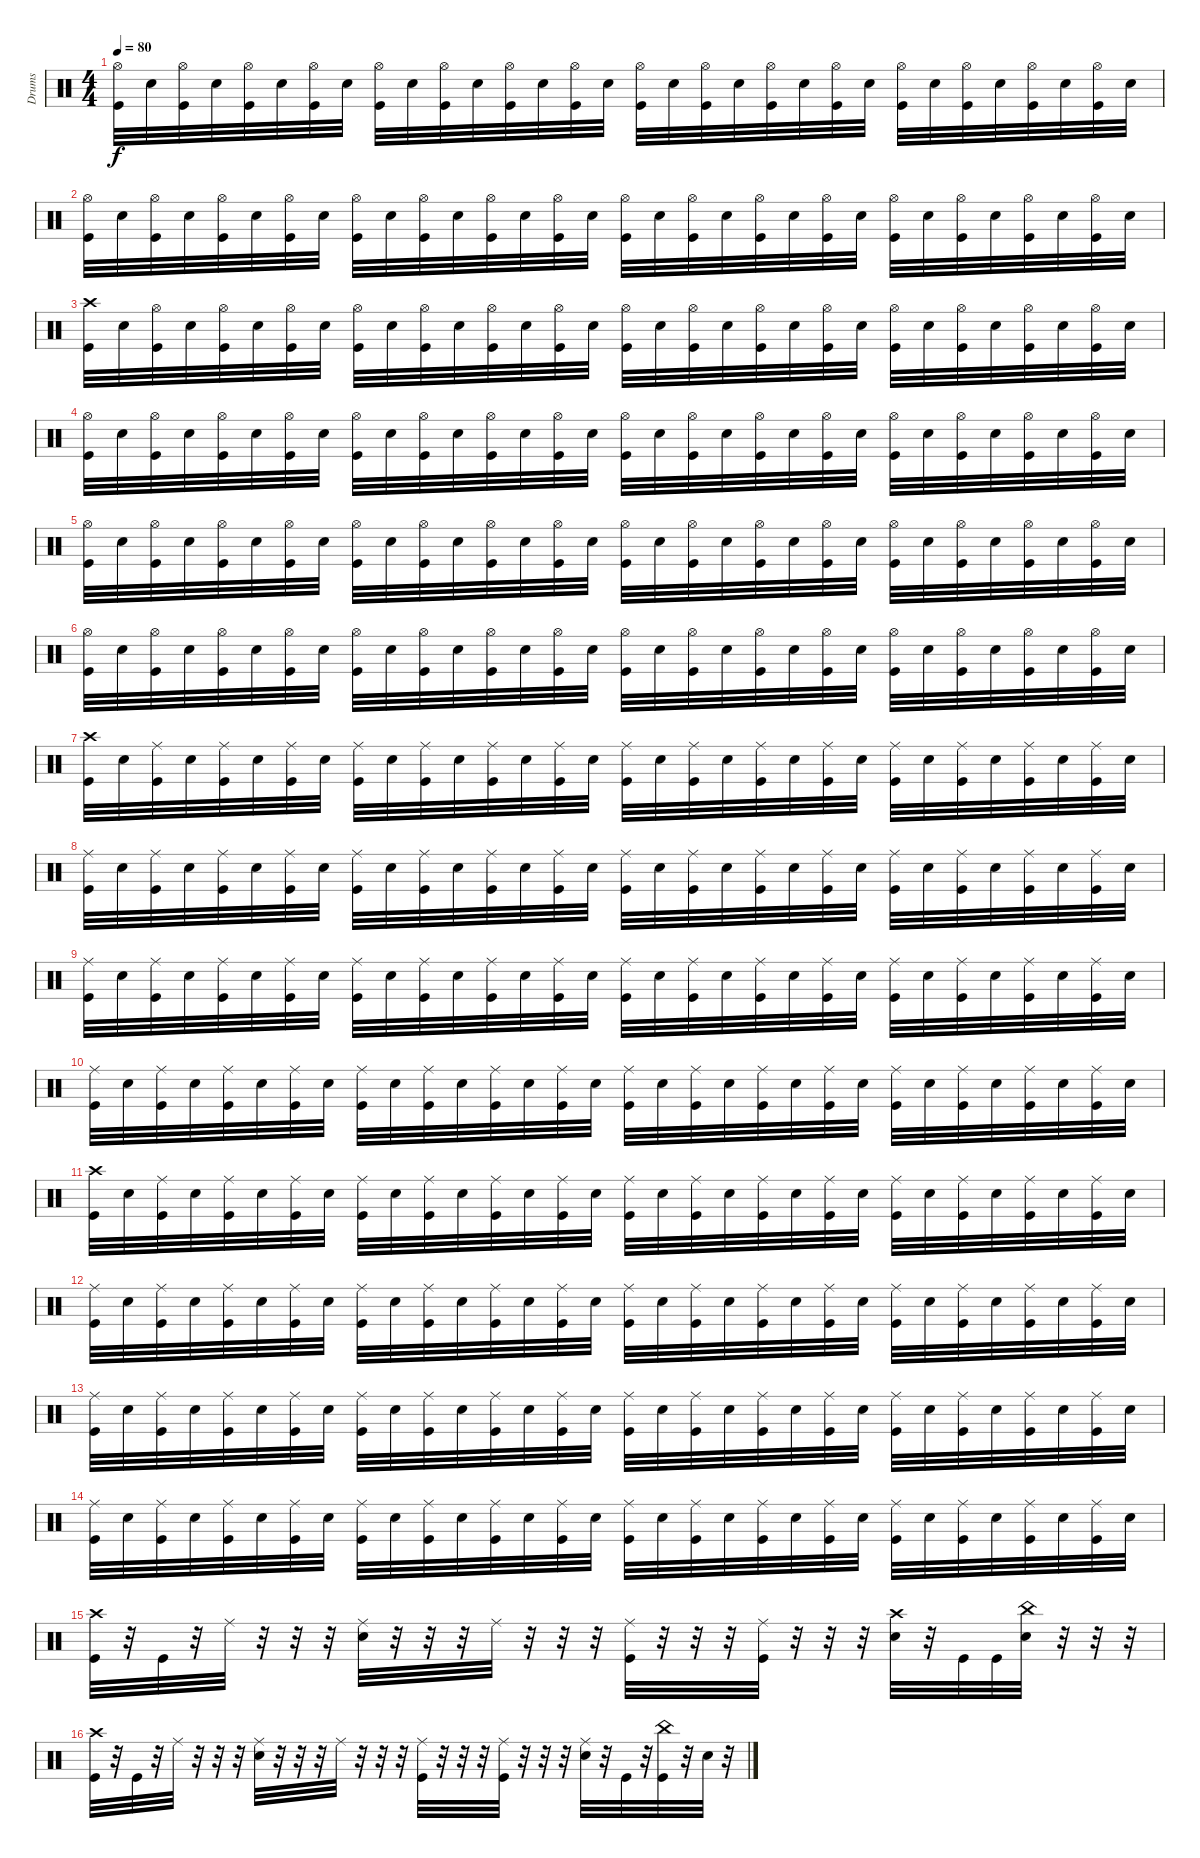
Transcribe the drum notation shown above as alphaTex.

\track ("Drums" "Drums") {instrument percussion}
\staff {score}
\articulation defaults
\ts (4 4)
\tempo 80
\clef neutral
\ks c
("Hi-Hat (open)" "Kick (hit)").32{dy f} "Snare (hit) 2".32 ("Hi-Hat (open)" "Kick (hit)").32 "Snare (hit) 2".32 ("Hi-Hat (open)" "Kick (hit)").32 "Snare (hit) 2".32 ("Hi-Hat (open)" "Kick (hit)").32 "Snare (hit) 2".32 ("Hi-Hat (open)" "Kick (hit)").32 "Snare (hit) 2".32 ("Hi-Hat (open)" "Kick (hit)").32 "Snare (hit) 2".32 ("Hi-Hat (open)" "Kick (hit)").32 "Snare (hit) 2".32 ("Hi-Hat (open)" "Kick (hit)").32 "Snare (hit) 2".32 ("Hi-Hat (open)" "Kick (hit)").32 "Snare (hit) 2".32 ("Hi-Hat (open)" "Kick (hit)").32 "Snare (hit) 2".32 ("Hi-Hat (open)" "Kick (hit)").32 "Snare (hit) 2".32 ("Hi-Hat (open)" "Kick (hit)").32 "Snare (hit) 2".32 ("Hi-Hat (open)" "Kick (hit)").32 "Snare (hit) 2".32 ("Hi-Hat (open)" "Kick (hit)").32 "Snare (hit) 2".32 ("Hi-Hat (open)" "Kick (hit)").32 "Snare (hit) 2".32 ("Hi-Hat (open)" "Kick (hit)").32 "Snare (hit) 2".32 |
("Hi-Hat (open)" "Kick (hit)").32 "Snare (hit) 2".32 ("Hi-Hat (open)" "Kick (hit)").32 "Snare (hit) 2".32 ("Hi-Hat (open)" "Kick (hit)").32 "Snare (hit) 2".32 ("Hi-Hat (open)" "Kick (hit)").32 "Snare (hit) 2".32 ("Hi-Hat (open)" "Kick (hit)").32 "Snare (hit) 2".32 ("Hi-Hat (open)" "Kick (hit)").32 "Snare (hit) 2".32 ("Hi-Hat (open)" "Kick (hit)").32 "Snare (hit) 2".32 ("Hi-Hat (open)" "Kick (hit)").32 "Snare (hit) 2".32 ("Hi-Hat (open)" "Kick (hit)").32 "Snare (hit) 2".32 ("Hi-Hat (open)" "Kick (hit)").32 "Snare (hit) 2".32 ("Hi-Hat (open)" "Kick (hit)").32 "Snare (hit) 2".32 ("Hi-Hat (open)" "Kick (hit)").32 "Snare (hit) 2".32 ("Hi-Hat (open)" "Kick (hit)").32 "Snare (hit) 2".32 ("Hi-Hat (open)" "Kick (hit)").32 "Snare (hit) 2".32 ("Hi-Hat (open)" "Kick (hit)").32 "Snare (hit) 2".32 ("Hi-Hat (open)" "Kick (hit)").32 "Snare (hit) 2".32 |
("Crash high (hit)" "Kick (hit)").32 "Snare (hit) 2".32 ("Hi-Hat (open)" "Kick (hit)").32 "Snare (hit) 2".32 ("Hi-Hat (open)" "Kick (hit)").32 "Snare (hit) 2".32 ("Hi-Hat (open)" "Kick (hit)").32 "Snare (hit) 2".32 ("Hi-Hat (open)" "Kick (hit)").32 "Snare (hit) 2".32 ("Hi-Hat (open)" "Kick (hit)").32 "Snare (hit) 2".32 ("Hi-Hat (open)" "Kick (hit)").32 "Snare (hit) 2".32 ("Hi-Hat (open)" "Kick (hit)").32 "Snare (hit) 2".32 ("Hi-Hat (open)" "Kick (hit)").32 "Snare (hit) 2".32 ("Hi-Hat (open)" "Kick (hit)").32 "Snare (hit) 2".32 ("Hi-Hat (open)" "Kick (hit)").32 "Snare (hit) 2".32 ("Hi-Hat (open)" "Kick (hit)").32 "Snare (hit) 2".32 ("Hi-Hat (open)" "Kick (hit)").32 "Snare (hit) 2".32 ("Hi-Hat (open)" "Kick (hit)").32 "Snare (hit) 2".32 ("Hi-Hat (open)" "Kick (hit)").32 "Snare (hit) 2".32 ("Hi-Hat (open)" "Kick (hit)").32 "Snare (hit) 2".32 |
("Hi-Hat (open)" "Kick (hit)").32 "Snare (hit) 2".32 ("Hi-Hat (open)" "Kick (hit)").32 "Snare (hit) 2".32 ("Hi-Hat (open)" "Kick (hit)").32 "Snare (hit) 2".32 ("Hi-Hat (open)" "Kick (hit)").32 "Snare (hit) 2".32 ("Hi-Hat (open)" "Kick (hit)").32 "Snare (hit) 2".32 ("Hi-Hat (open)" "Kick (hit)").32 "Snare (hit) 2".32 ("Hi-Hat (open)" "Kick (hit)").32 "Snare (hit) 2".32 ("Hi-Hat (open)" "Kick (hit)").32 "Snare (hit) 2".32 ("Hi-Hat (open)" "Kick (hit)").32 "Snare (hit) 2".32 ("Hi-Hat (open)" "Kick (hit)").32 "Snare (hit) 2".32 ("Hi-Hat (open)" "Kick (hit)").32 "Snare (hit) 2".32 ("Hi-Hat (open)" "Kick (hit)").32 "Snare (hit) 2".32 ("Hi-Hat (open)" "Kick (hit)").32 "Snare (hit) 2".32 ("Hi-Hat (open)" "Kick (hit)").32 "Snare (hit) 2".32 ("Hi-Hat (open)" "Kick (hit)").32 "Snare (hit) 2".32 ("Hi-Hat (open)" "Kick (hit)").32 "Snare (hit) 2".32 |
("Hi-Hat (open)" "Kick (hit)").32 "Snare (hit) 2".32 ("Hi-Hat (open)" "Kick (hit)").32 "Snare (hit) 2".32 ("Hi-Hat (open)" "Kick (hit)").32 "Snare (hit) 2".32 ("Hi-Hat (open)" "Kick (hit)").32 "Snare (hit) 2".32 ("Hi-Hat (open)" "Kick (hit)").32 "Snare (hit) 2".32 ("Hi-Hat (open)" "Kick (hit)").32 "Snare (hit) 2".32 ("Hi-Hat (open)" "Kick (hit)").32 "Snare (hit) 2".32 ("Hi-Hat (open)" "Kick (hit)").32 "Snare (hit) 2".32 ("Hi-Hat (open)" "Kick (hit)").32 "Snare (hit) 2".32 ("Hi-Hat (open)" "Kick (hit)").32 "Snare (hit) 2".32 ("Hi-Hat (open)" "Kick (hit)").32 "Snare (hit) 2".32 ("Hi-Hat (open)" "Kick (hit)").32 "Snare (hit) 2".32 ("Hi-Hat (open)" "Kick (hit)").32 "Snare (hit) 2".32 ("Hi-Hat (open)" "Kick (hit)").32 "Snare (hit) 2".32 ("Hi-Hat (open)" "Kick (hit)").32 "Snare (hit) 2".32 ("Hi-Hat (open)" "Kick (hit)").32 "Snare (hit) 2".32 |
("Hi-Hat (open)" "Kick (hit)").32 "Snare (hit) 2".32 ("Hi-Hat (open)" "Kick (hit)").32 "Snare (hit) 2".32 ("Hi-Hat (open)" "Kick (hit)").32 "Snare (hit) 2".32 ("Hi-Hat (open)" "Kick (hit)").32 "Snare (hit) 2".32 ("Hi-Hat (open)" "Kick (hit)").32 "Snare (hit) 2".32 ("Hi-Hat (open)" "Kick (hit)").32 "Snare (hit) 2".32 ("Hi-Hat (open)" "Kick (hit)").32 "Snare (hit) 2".32 ("Hi-Hat (open)" "Kick (hit)").32 "Snare (hit) 2".32 ("Hi-Hat (open)" "Kick (hit)").32 "Snare (hit) 2".32 ("Hi-Hat (open)" "Kick (hit)").32 "Snare (hit) 2".32 ("Hi-Hat (open)" "Kick (hit)").32 "Snare (hit) 2".32 ("Hi-Hat (open)" "Kick (hit)").32 "Snare (hit) 2".32 ("Hi-Hat (open)" "Kick (hit)").32 "Snare (hit) 2".32 ("Hi-Hat (open)" "Kick (hit)").32 "Snare (hit) 2".32 ("Hi-Hat (open)" "Kick (hit)").32 "Snare (hit) 2".32 ("Hi-Hat (open)" "Kick (hit)").32 "Snare (hit) 2".32 |
("Crash high (hit)" "Kick (hit)").32 "Snare (hit) 2".32 ("Ride (middle)" "Kick (hit)").32 "Snare (hit) 2".32 ("Ride (middle)" "Kick (hit)").32 "Snare (hit) 2".32 ("Ride (middle)" "Kick (hit)").32 "Snare (hit) 2".32 ("Ride (middle)" "Kick (hit)").32 "Snare (hit) 2".32 ("Ride (middle)" "Kick (hit)").32 "Snare (hit) 2".32 ("Ride (middle)" "Kick (hit)").32 "Snare (hit) 2".32 ("Ride (middle)" "Kick (hit)").32 "Snare (hit) 2".32 ("Ride (middle)" "Kick (hit)").32 "Snare (hit) 2".32 ("Ride (middle)" "Kick (hit)").32 "Snare (hit) 2".32 ("Ride (middle)" "Kick (hit)").32 "Snare (hit) 2".32 ("Ride (middle)" "Kick (hit)").32 "Snare (hit) 2".32 ("Ride (middle)" "Kick (hit)").32 "Snare (hit) 2".32 ("Ride (middle)" "Kick (hit)").32 "Snare (hit) 2".32 ("Ride (middle)" "Kick (hit)").32 "Snare (hit) 2".32 ("Ride (middle)" "Kick (hit)").32 "Snare (hit) 2".32 |
("Ride (middle)" "Kick (hit)").32 "Snare (hit) 2".32 ("Ride (middle)" "Kick (hit)").32 "Snare (hit) 2".32 ("Ride (middle)" "Kick (hit)").32 "Snare (hit) 2".32 ("Ride (middle)" "Kick (hit)").32 "Snare (hit) 2".32 ("Ride (middle)" "Kick (hit)").32 "Snare (hit) 2".32 ("Ride (middle)" "Kick (hit)").32 "Snare (hit) 2".32 ("Ride (middle)" "Kick (hit)").32 "Snare (hit) 2".32 ("Ride (middle)" "Kick (hit)").32 "Snare (hit) 2".32 ("Ride (middle)" "Kick (hit)").32 "Snare (hit) 2".32 ("Ride (middle)" "Kick (hit)").32 "Snare (hit) 2".32 ("Ride (middle)" "Kick (hit)").32 "Snare (hit) 2".32 ("Ride (middle)" "Kick (hit)").32 "Snare (hit) 2".32 ("Ride (middle)" "Kick (hit)").32 "Snare (hit) 2".32 ("Ride (middle)" "Kick (hit)").32 "Snare (hit) 2".32 ("Ride (middle)" "Kick (hit)").32 "Snare (hit) 2".32 ("Ride (middle)" "Kick (hit)").32 "Snare (hit) 2".32 |
("Ride (middle)" "Kick (hit)").32 "Snare (hit) 2".32 ("Ride (middle)" "Kick (hit)").32 "Snare (hit) 2".32 ("Ride (middle)" "Kick (hit)").32 "Snare (hit) 2".32 ("Ride (middle)" "Kick (hit)").32 "Snare (hit) 2".32 ("Ride (middle)" "Kick (hit)").32 "Snare (hit) 2".32 ("Ride (middle)" "Kick (hit)").32 "Snare (hit) 2".32 ("Ride (middle)" "Kick (hit)").32 "Snare (hit) 2".32 ("Ride (middle)" "Kick (hit)").32 "Snare (hit) 2".32 ("Ride (middle)" "Kick (hit)").32 "Snare (hit) 2".32 ("Ride (middle)" "Kick (hit)").32 "Snare (hit) 2".32 ("Ride (middle)" "Kick (hit)").32 "Snare (hit) 2".32 ("Ride (middle)" "Kick (hit)").32 "Snare (hit) 2".32 ("Ride (middle)" "Kick (hit)").32 "Snare (hit) 2".32 ("Ride (middle)" "Kick (hit)").32 "Snare (hit) 2".32 ("Ride (middle)" "Kick (hit)").32 "Snare (hit) 2".32 ("Ride (middle)" "Kick (hit)").32 "Snare (hit) 2".32 |
("Ride (middle)" "Kick (hit)").32 "Snare (hit) 2".32 ("Ride (middle)" "Kick (hit)").32 "Snare (hit) 2".32 ("Ride (middle)" "Kick (hit)").32 "Snare (hit) 2".32 ("Ride (middle)" "Kick (hit)").32 "Snare (hit) 2".32 ("Ride (middle)" "Kick (hit)").32 "Snare (hit) 2".32 ("Ride (middle)" "Kick (hit)").32 "Snare (hit) 2".32 ("Ride (middle)" "Kick (hit)").32 "Snare (hit) 2".32 ("Ride (middle)" "Kick (hit)").32 "Snare (hit) 2".32 ("Ride (middle)" "Kick (hit)").32 "Snare (hit) 2".32 ("Ride (middle)" "Kick (hit)").32 "Snare (hit) 2".32 ("Ride (middle)" "Kick (hit)").32 "Snare (hit) 2".32 ("Ride (middle)" "Kick (hit)").32 "Snare (hit) 2".32 ("Ride (middle)" "Kick (hit)").32 "Snare (hit) 2".32 ("Ride (middle)" "Kick (hit)").32 "Snare (hit) 2".32 ("Ride (middle)" "Kick (hit)").32 "Snare (hit) 2".32 ("Ride (middle)" "Kick (hit)").32 "Snare (hit) 2".32 |
("Crash high (hit)" "Kick (hit)").32 "Snare (hit) 2".32 ("Ride (middle)" "Kick (hit)").32 "Snare (hit) 2".32 ("Ride (middle)" "Kick (hit)").32 "Snare (hit) 2".32 ("Ride (middle)" "Kick (hit)").32 "Snare (hit) 2".32 ("Ride (middle)" "Kick (hit)").32 "Snare (hit) 2".32 ("Ride (middle)" "Kick (hit)").32 "Snare (hit) 2".32 ("Ride (middle)" "Kick (hit)").32 "Snare (hit) 2".32 ("Ride (middle)" "Kick (hit)").32 "Snare (hit) 2".32 ("Ride (middle)" "Kick (hit)").32 "Snare (hit) 2".32 ("Ride (middle)" "Kick (hit)").32 "Snare (hit) 2".32 ("Ride (middle)" "Kick (hit)").32 "Snare (hit) 2".32 ("Ride (middle)" "Kick (hit)").32 "Snare (hit) 2".32 ("Ride (middle)" "Kick (hit)").32 "Snare (hit) 2".32 ("Ride (middle)" "Kick (hit)").32 "Snare (hit) 2".32 ("Ride (middle)" "Kick (hit)").32 "Snare (hit) 2".32 ("Ride (middle)" "Kick (hit)").32 "Snare (hit) 2".32 |
("Ride (middle)" "Kick (hit)").32 "Snare (hit) 2".32 ("Ride (middle)" "Kick (hit)").32 "Snare (hit) 2".32 ("Ride (middle)" "Kick (hit)").32 "Snare (hit) 2".32 ("Ride (middle)" "Kick (hit)").32 "Snare (hit) 2".32 ("Ride (middle)" "Kick (hit)").32 "Snare (hit) 2".32 ("Ride (middle)" "Kick (hit)").32 "Snare (hit) 2".32 ("Ride (middle)" "Kick (hit)").32 "Snare (hit) 2".32 ("Ride (middle)" "Kick (hit)").32 "Snare (hit) 2".32 ("Ride (middle)" "Kick (hit)").32 "Snare (hit) 2".32 ("Ride (middle)" "Kick (hit)").32 "Snare (hit) 2".32 ("Ride (middle)" "Kick (hit)").32 "Snare (hit) 2".32 ("Ride (middle)" "Kick (hit)").32 "Snare (hit) 2".32 ("Ride (middle)" "Kick (hit)").32 "Snare (hit) 2".32 ("Ride (middle)" "Kick (hit)").32 "Snare (hit) 2".32 ("Ride (middle)" "Kick (hit)").32 "Snare (hit) 2".32 ("Ride (middle)" "Kick (hit)").32 "Snare (hit) 2".32 |
("Ride (middle)" "Kick (hit)").32 "Snare (hit) 2".32 ("Ride (middle)" "Kick (hit)").32 "Snare (hit) 2".32 ("Ride (middle)" "Kick (hit)").32 "Snare (hit) 2".32 ("Ride (middle)" "Kick (hit)").32 "Snare (hit) 2".32 ("Ride (middle)" "Kick (hit)").32 "Snare (hit) 2".32 ("Ride (middle)" "Kick (hit)").32 "Snare (hit) 2".32 ("Ride (middle)" "Kick (hit)").32 "Snare (hit) 2".32 ("Ride (middle)" "Kick (hit)").32 "Snare (hit) 2".32 ("Ride (middle)" "Kick (hit)").32 "Snare (hit) 2".32 ("Ride (middle)" "Kick (hit)").32 "Snare (hit) 2".32 ("Ride (middle)" "Kick (hit)").32 "Snare (hit) 2".32 ("Ride (middle)" "Kick (hit)").32 "Snare (hit) 2".32 ("Ride (middle)" "Kick (hit)").32 "Snare (hit) 2".32 ("Ride (middle)" "Kick (hit)").32 "Snare (hit) 2".32 ("Ride (middle)" "Kick (hit)").32 "Snare (hit) 2".32 ("Ride (middle)" "Kick (hit)").32 "Snare (hit) 2".32 |
("Ride (middle)" "Kick (hit)").32 "Snare (hit) 2".32 ("Ride (middle)" "Kick (hit)").32 "Snare (hit) 2".32 ("Ride (middle)" "Kick (hit)").32 "Snare (hit) 2".32 ("Ride (middle)" "Kick (hit)").32 "Snare (hit) 2".32 ("Ride (middle)" "Kick (hit)").32 "Snare (hit) 2".32 ("Ride (middle)" "Kick (hit)").32 "Snare (hit) 2".32 ("Ride (middle)" "Kick (hit)").32 "Snare (hit) 2".32 ("Ride (middle)" "Kick (hit)").32 "Snare (hit) 2".32 ("Ride (middle)" "Kick (hit)").32 "Snare (hit) 2".32 ("Ride (middle)" "Kick (hit)").32 "Snare (hit) 2".32 ("Ride (middle)" "Kick (hit)").32 "Snare (hit) 2".32 ("Ride (middle)" "Kick (hit)").32 "Snare (hit) 2".32 ("Ride (middle)" "Kick (hit)").32 "Snare (hit) 2".32 ("Ride (middle)" "Kick (hit)").32 "Snare (hit) 2".32 ("Ride (middle)" "Kick (hit)").32 "Snare (hit) 2".32 ("Ride (middle)" "Kick (hit)").32 "Snare (hit) 2".32 |
("Crash high (hit)" "Kick (hit)").32 r.32 "Kick (hit)".32 r.32 "Ride (middle)".32 r.32 r.32 r.32 ("Ride (middle)" "Snare (hit) 2").32 r.32 r.32 r.32 "Ride (middle)".32 r.32 r.32 r.32 ("Ride (middle)" "Kick (hit)").32 r.32 r.32 r.32 ("Ride (middle)" "Kick (hit)").32 r.32 r.32 r.32 ("Crash high (hit)" "Snare (hit) 2").32 r.32 "Kick (hit)".32 "Kick (hit)".32 ("China (hit)" "Snare (hit) 2").32 r.32 r.32 r.32 |
("Crash high (hit)" "Kick (hit)").32 r.32 "Kick (hit)".32 r.32 "Ride (middle)".32 r.32 r.32 r.32 ("Ride (middle)" "Snare (hit) 2").32 r.32 r.32 r.32 "Ride (middle)".32 r.32 r.32 r.32 ("Ride (middle)" "Kick (hit)").32 r.32 r.32 r.32 ("Ride (middle)" "Kick (hit)").32 r.32 r.32 r.32 ("Ride (middle)" "Snare (hit) 2").32 r.32 "Kick (hit)".32 r.32 ("China (hit)" "Kick (hit)").32 r.32 "Snare (hit) 2".32 r.32
